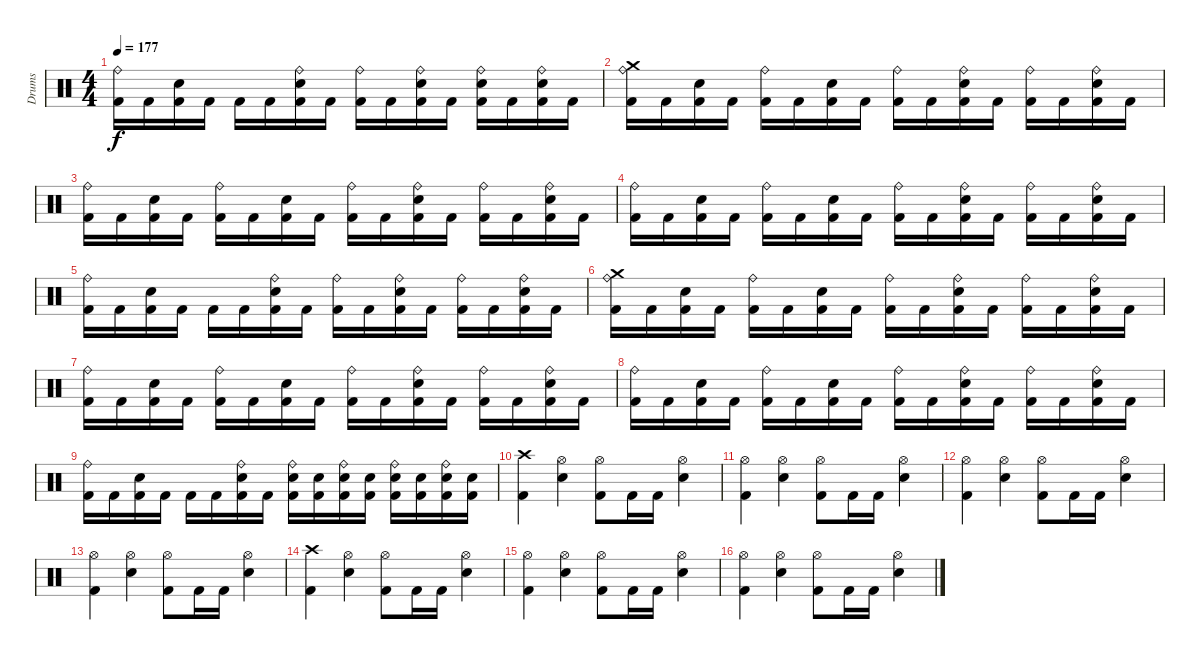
\track ("Drums" "Drums") {instrument percussion}
\staff {score}
\articulation defaults
\ts (4 4)
\tempo 177
\clef neutral
\ks c
("Ride (bell)" "Kick (hit) 2").16{dy f} "Kick (hit) 2".16 ("Snare (hit) 2" "Kick (hit) 2").16 "Kick (hit) 2".16 "Kick (hit) 2".16 "Kick (hit) 2".16 ("Ride (bell)" "Snare (hit) 2" "Kick (hit) 2").16 "Kick (hit) 2".16 ("Ride (bell)" "Kick (hit) 2").16 "Kick (hit) 2".16 ("Ride (bell)" "Snare (hit) 2" "Kick (hit) 2").16 "Kick (hit) 2".16 ("Ride (bell)" "Snare (hit) 2" "Kick (hit) 2").16 "Kick (hit) 2".16 ("Ride (bell)" "Snare (hit) 2" "Kick (hit) 2").16 "Kick (hit) 2".16 |
("Crash medium (hit)" "Ride (bell)" "Kick (hit) 2").16 "Kick (hit) 2".16 ("Snare (hit) 2" "Kick (hit) 2").16 "Kick (hit) 2".16 ("Ride (bell)" "Kick (hit) 2").16 "Kick (hit) 2".16 ("Snare (hit) 2" "Kick (hit) 2").16 "Kick (hit) 2".16 ("Ride (bell)" "Kick (hit) 2").16 "Kick (hit) 2".16 ("Ride (bell)" "Snare (hit) 2" "Kick (hit) 2").16 "Kick (hit) 2".16 ("Ride (bell)" "Kick (hit) 2").16 "Kick (hit) 2".16 ("Ride (bell)" "Snare (hit) 2" "Kick (hit) 2").16 "Kick (hit) 2".16 |
("Ride (bell)" "Kick (hit) 2").16 "Kick (hit) 2".16 ("Snare (hit) 2" "Kick (hit) 2").16 "Kick (hit) 2".16 ("Ride (bell)" "Kick (hit) 2").16 "Kick (hit) 2".16 ("Snare (hit) 2" "Kick (hit) 2").16 "Kick (hit) 2".16 ("Ride (bell)" "Kick (hit) 2").16 "Kick (hit) 2".16 ("Ride (bell)" "Snare (hit) 2" "Kick (hit) 2").16 "Kick (hit) 2".16 ("Ride (bell)" "Kick (hit) 2").16 "Kick (hit) 2".16 ("Ride (bell)" "Snare (hit) 2" "Kick (hit) 2").16 "Kick (hit) 2".16 |
("Ride (bell)" "Kick (hit) 2").16 "Kick (hit) 2".16 ("Snare (hit) 2" "Kick (hit) 2").16 "Kick (hit) 2".16 ("Ride (bell)" "Kick (hit) 2").16 "Kick (hit) 2".16 ("Snare (hit) 2" "Kick (hit) 2").16 "Kick (hit) 2".16 ("Ride (bell)" "Kick (hit) 2").16 "Kick (hit) 2".16 ("Ride (bell)" "Snare (hit) 2" "Kick (hit) 2").16 "Kick (hit) 2".16 ("Ride (bell)" "Kick (hit) 2").16 "Kick (hit) 2".16 ("Ride (bell)" "Snare (hit) 2" "Kick (hit) 2").16 "Kick (hit) 2".16 |
("Ride (bell)" "Kick (hit) 2").16 "Kick (hit) 2".16 ("Snare (hit) 2" "Kick (hit) 2").16 "Kick (hit) 2".16 "Kick (hit) 2".16 "Kick (hit) 2".16 ("Ride (bell)" "Snare (hit) 2" "Kick (hit) 2").16 "Kick (hit) 2".16 ("Ride (bell)" "Kick (hit) 2").16 "Kick (hit) 2".16 ("Ride (bell)" "Snare (hit) 2" "Kick (hit) 2").16 "Kick (hit) 2".16 ("Ride (bell)" "Kick (hit) 2").16 "Kick (hit) 2".16 ("Ride (bell)" "Snare (hit) 2" "Kick (hit) 2").16 "Kick (hit) 2".16 |
("Ride (bell)" "Crash medium (hit)" "Kick (hit) 2").16 "Kick (hit) 2".16 ("Snare (hit) 2" "Kick (hit) 2").16 "Kick (hit) 2".16 ("Ride (bell)" "Kick (hit) 2").16 "Kick (hit) 2".16 ("Snare (hit) 2" "Kick (hit) 2").16 "Kick (hit) 2".16 ("Ride (bell)" "Kick (hit) 2").16 "Kick (hit) 2".16 ("Ride (bell)" "Snare (hit) 2" "Kick (hit) 2").16 "Kick (hit) 2".16 ("Ride (bell)" "Kick (hit) 2").16 "Kick (hit) 2".16 ("Ride (bell)" "Snare (hit) 2" "Kick (hit) 2").16 "Kick (hit) 2".16 |
("Ride (bell)" "Kick (hit) 2").16 "Kick (hit) 2".16 ("Snare (hit) 2" "Kick (hit) 2").16 "Kick (hit) 2".16 ("Ride (bell)" "Kick (hit) 2").16 "Kick (hit) 2".16 ("Snare (hit) 2" "Kick (hit) 2").16 "Kick (hit) 2".16 ("Ride (bell)" "Kick (hit) 2").16 "Kick (hit) 2".16 ("Ride (bell)" "Snare (hit) 2" "Kick (hit) 2").16 "Kick (hit) 2".16 ("Ride (bell)" "Kick (hit) 2").16 "Kick (hit) 2".16 ("Ride (bell)" "Snare (hit) 2" "Kick (hit) 2").16 "Kick (hit) 2".16 |
("Ride (bell)" "Kick (hit) 2").16 "Kick (hit) 2".16 ("Snare (hit) 2" "Kick (hit) 2").16 "Kick (hit) 2".16 ("Ride (bell)" "Kick (hit) 2").16 "Kick (hit) 2".16 ("Snare (hit) 2" "Kick (hit) 2").16 "Kick (hit) 2".16 ("Ride (bell)" "Kick (hit) 2").16 "Kick (hit) 2".16 ("Ride (bell)" "Snare (hit) 2" "Kick (hit) 2").16 "Kick (hit) 2".16 ("Ride (bell)" "Kick (hit) 2").16 "Kick (hit) 2".16 ("Ride (bell)" "Snare (hit) 2" "Kick (hit) 2").16 "Kick (hit) 2".16 |
("Ride (bell)" "Kick (hit) 2").16 "Kick (hit) 2".16 ("Snare (hit) 2" "Kick (hit) 2").16 "Kick (hit) 2".16 "Kick (hit) 2".16 "Kick (hit) 2".16 ("Ride (bell)" "Snare (hit) 2" "Kick (hit) 2").16 "Kick (hit) 2".16 ("Ride (bell)" "Snare (hit) 2" "Kick (hit) 2").16 ("Snare (hit) 2" "Kick (hit) 2").16 ("Ride (bell)" "Snare (hit) 2" "Kick (hit) 2").16 ("Snare (hit) 2" "Kick (hit) 2").16 ("Ride (bell)" "Snare (hit) 2" "Kick (hit) 2").16 ("Snare (hit) 2" "Kick (hit) 2").16 ("Ride (bell)" "Snare (hit) 2" "Kick (hit) 2").16 ("Snare (hit) 2" "Kick (hit) 2").16 |
("Kick (hit) 2" "Crash high (hit)").4 ("Snare (hit) 2" "Hi-Hat (open)").4 ("Kick (hit) 2" "Hi-Hat (open)").8 "Kick (hit) 2".16 "Kick (hit) 2".16 ("Snare (hit) 2" "Hi-Hat (open)").4 |
("Kick (hit) 2" "Hi-Hat (open)").4 ("Snare (hit) 2" "Hi-Hat (open)").4 ("Kick (hit) 2" "Hi-Hat (open)").8 "Kick (hit) 2".16 "Kick (hit) 2".16 ("Snare (hit) 2" "Hi-Hat (open)").4 |
("Kick (hit) 2" "Hi-Hat (open)").4 ("Snare (hit) 2" "Hi-Hat (open)").4 ("Kick (hit) 2" "Hi-Hat (open)").8 "Kick (hit) 2".16 "Kick (hit) 2".16 ("Snare (hit) 2" "Hi-Hat (open)").4 |
("Kick (hit) 2" "Hi-Hat (open)").4 ("Snare (hit) 2" "Hi-Hat (open)").4 ("Kick (hit) 2" "Hi-Hat (open)").8 "Kick (hit) 2".16 "Kick (hit) 2".16 ("Snare (hit) 2" "Hi-Hat (open)").4 |
("Kick (hit) 2" "Crash high (hit)").4 ("Snare (hit) 2" "Hi-Hat (open)").4 ("Kick (hit) 2" "Hi-Hat (open)").8 "Kick (hit) 2".16 "Kick (hit) 2".16 ("Snare (hit) 2" "Hi-Hat (open)").4 |
("Kick (hit) 2" "Hi-Hat (open)").4 ("Snare (hit) 2" "Hi-Hat (open)").4 ("Kick (hit) 2" "Hi-Hat (open)").8 "Kick (hit) 2".16 "Kick (hit) 2".16 ("Snare (hit) 2" "Hi-Hat (open)").4 |
("Kick (hit) 2" "Hi-Hat (open)").4 ("Snare (hit) 2" "Hi-Hat (open)").4 ("Kick (hit) 2" "Hi-Hat (open)").8 "Kick (hit) 2".16 "Kick (hit) 2".16 ("Snare (hit) 2" "Hi-Hat (open)").4
